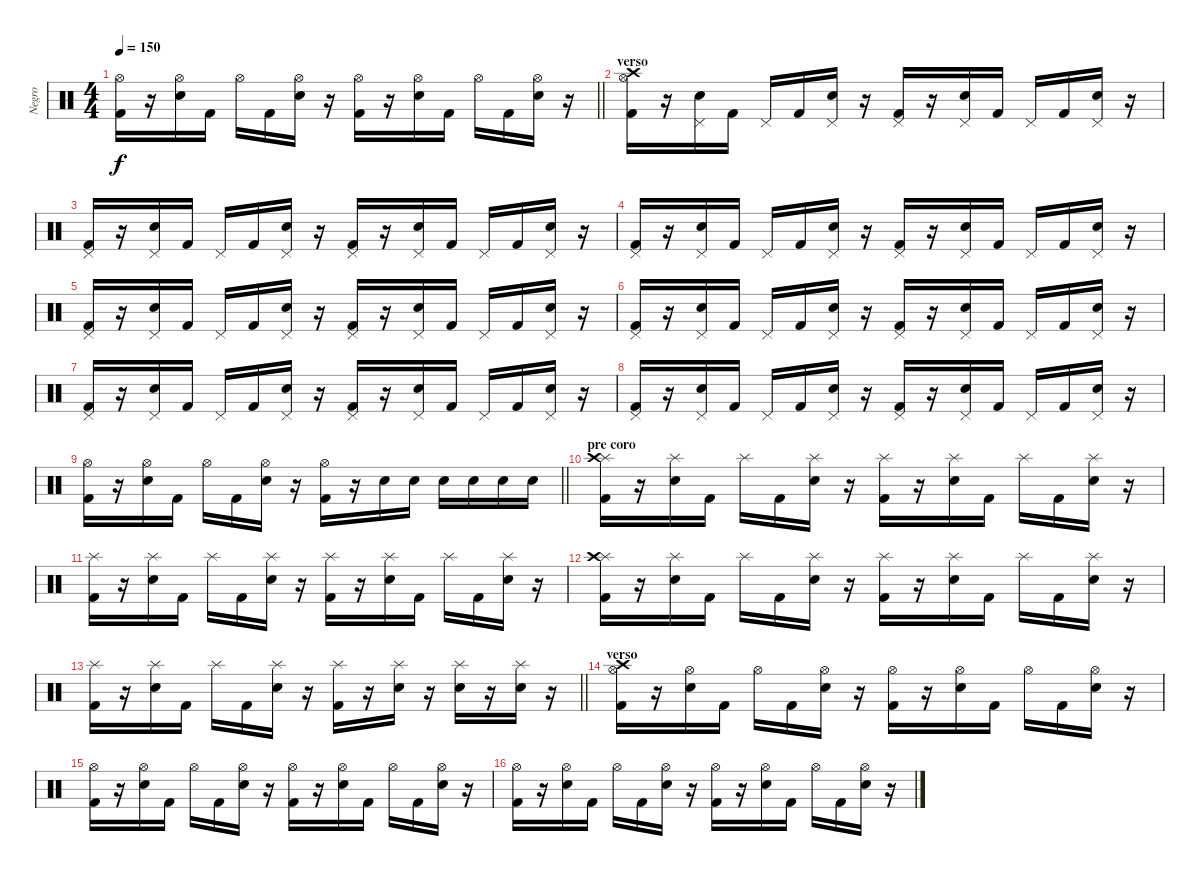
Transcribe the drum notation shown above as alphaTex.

\track ("Negro" "Negro") {instrument percussion}
\staff {score}
\articulation defaults
\ts (4 4)
\tempo 150
\clef neutral
\barLineRight lightlight
\ks c
("Kick (hit) 2" "Hi-Hat (open)").16{dy f} r.16 ("Electric Snare (hit)" "Hi-Hat (open)").16 "Kick (hit) 2".16 "Hi-Hat (open)".16 "Kick (hit) 2".16 ("Electric Snare (hit)" "Hi-Hat (open)").16 r.16 ("Kick (hit) 2" "Hi-Hat (open)").16 r.16 ("Electric Snare (hit)" "Hi-Hat (open)").16 "Kick (hit) 2".16 "Hi-Hat (open)".16 "Kick (hit) 2".16 ("Electric Snare (hit)" "Hi-Hat (open)").16 r.16 |
\section ("" "verso")
("Kick (hit) 2" "Hi-Hat (open)" "Crash high (hit)").16 r.16 ("Electric Snare (hit)" "Pedal Hi-Hat (hit)").16 "Kick (hit) 2".16 "Pedal Hi-Hat (hit)".16 "Kick (hit) 2".16 ("Electric Snare (hit)" "Pedal Hi-Hat (hit)").16 r.16 ("Kick (hit) 2" "Pedal Hi-Hat (hit)").16 r.16 ("Electric Snare (hit)" "Pedal Hi-Hat (hit)").16 "Kick (hit) 2".16 "Pedal Hi-Hat (hit)".16 "Kick (hit) 2".16 ("Electric Snare (hit)" "Pedal Hi-Hat (hit)").16 r.16 |
("Kick (hit) 2" "Pedal Hi-Hat (hit)").16 r.16 ("Electric Snare (hit)" "Pedal Hi-Hat (hit)").16 "Kick (hit) 2".16 "Pedal Hi-Hat (hit)".16 "Kick (hit) 2".16 ("Electric Snare (hit)" "Pedal Hi-Hat (hit)").16 r.16 ("Kick (hit) 2" "Pedal Hi-Hat (hit)").16 r.16 ("Electric Snare (hit)" "Pedal Hi-Hat (hit)").16 "Kick (hit) 2".16 "Pedal Hi-Hat (hit)".16 "Kick (hit) 2".16 ("Electric Snare (hit)" "Pedal Hi-Hat (hit)").16 r.16 |
("Kick (hit) 2" "Pedal Hi-Hat (hit)").16 r.16 ("Electric Snare (hit)" "Pedal Hi-Hat (hit)").16 "Kick (hit) 2".16 "Pedal Hi-Hat (hit)".16 "Kick (hit) 2".16 ("Electric Snare (hit)" "Pedal Hi-Hat (hit)").16 r.16 ("Kick (hit) 2" "Pedal Hi-Hat (hit)").16 r.16 ("Electric Snare (hit)" "Pedal Hi-Hat (hit)").16 "Kick (hit) 2".16 "Pedal Hi-Hat (hit)".16 "Kick (hit) 2".16 ("Electric Snare (hit)" "Pedal Hi-Hat (hit)").16 r.16 |
("Kick (hit) 2" "Pedal Hi-Hat (hit)").16 r.16 ("Electric Snare (hit)" "Pedal Hi-Hat (hit)").16 "Kick (hit) 2".16 "Pedal Hi-Hat (hit)".16 "Kick (hit) 2".16 ("Electric Snare (hit)" "Pedal Hi-Hat (hit)").16 r.16 ("Kick (hit) 2" "Pedal Hi-Hat (hit)").16 r.16 ("Electric Snare (hit)" "Pedal Hi-Hat (hit)").16 "Kick (hit) 2".16 "Pedal Hi-Hat (hit)".16 "Kick (hit) 2".16 ("Electric Snare (hit)" "Pedal Hi-Hat (hit)").16 r.16 |
("Kick (hit) 2" "Pedal Hi-Hat (hit)").16 r.16 ("Electric Snare (hit)" "Pedal Hi-Hat (hit)").16 "Kick (hit) 2".16 "Pedal Hi-Hat (hit)".16 "Kick (hit) 2".16 ("Electric Snare (hit)" "Pedal Hi-Hat (hit)").16 r.16 ("Kick (hit) 2" "Pedal Hi-Hat (hit)").16 r.16 ("Electric Snare (hit)" "Pedal Hi-Hat (hit)").16 "Kick (hit) 2".16 "Pedal Hi-Hat (hit)".16 "Kick (hit) 2".16 ("Electric Snare (hit)" "Pedal Hi-Hat (hit)").16 r.16 |
("Kick (hit) 2" "Pedal Hi-Hat (hit)").16 r.16 ("Electric Snare (hit)" "Pedal Hi-Hat (hit)").16 "Kick (hit) 2".16 "Pedal Hi-Hat (hit)".16 "Kick (hit) 2".16 ("Electric Snare (hit)" "Pedal Hi-Hat (hit)").16 r.16 ("Kick (hit) 2" "Pedal Hi-Hat (hit)").16 r.16 ("Electric Snare (hit)" "Pedal Hi-Hat (hit)").16 "Kick (hit) 2".16 "Pedal Hi-Hat (hit)".16 "Kick (hit) 2".16 ("Electric Snare (hit)" "Pedal Hi-Hat (hit)").16 r.16 |
("Kick (hit) 2" "Pedal Hi-Hat (hit)").16 r.16 ("Electric Snare (hit)" "Pedal Hi-Hat (hit)").16 "Kick (hit) 2".16 "Pedal Hi-Hat (hit)".16 "Kick (hit) 2".16 ("Electric Snare (hit)" "Pedal Hi-Hat (hit)").16 r.16 ("Kick (hit) 2" "Pedal Hi-Hat (hit)").16 r.16 ("Electric Snare (hit)" "Pedal Hi-Hat (hit)").16 "Kick (hit) 2".16 "Pedal Hi-Hat (hit)".16 "Kick (hit) 2".16 ("Electric Snare (hit)" "Pedal Hi-Hat (hit)").16 r.16 |
\barLineRight lightlight
("Kick (hit) 2" "Hi-Hat (open)").16 r.16 ("Electric Snare (hit)" "Hi-Hat (open)").16 "Kick (hit) 2".16 "Hi-Hat (open)".16 "Kick (hit) 2".16 ("Electric Snare (hit)" "Hi-Hat (open)").16 r.16 ("Kick (hit) 2" "Hi-Hat (open)").16 r.16 "Electric Snare (hit)".16 "Electric Snare (hit)".16 "Electric Snare (hit)".16 "Electric Snare (hit)".16 "Electric Snare (hit)".16 "Electric Snare (hit)".16 |
\section ("" "pre coro")
("Kick (hit) 2" "Splash (hit)" "Crash high (hit)").16 r.16 ("Electric Snare (hit)" "Splash (hit)").16 "Kick (hit) 2".16 "Splash (hit)".16 "Kick (hit) 2".16 ("Electric Snare (hit)" "Splash (hit)").16 r.16 ("Kick (hit) 2" "Splash (hit)").16 r.16 ("Electric Snare (hit)" "Splash (hit)").16 "Kick (hit) 2".16 "Splash (hit)".16 "Kick (hit) 2".16 ("Electric Snare (hit)" "Splash (hit)").16 r.16 |
("Kick (hit) 2" "Splash (hit)").16 r.16 ("Electric Snare (hit)" "Splash (hit)").16 "Kick (hit) 2".16 "Splash (hit)".16 "Kick (hit) 2".16 ("Electric Snare (hit)" "Splash (hit)").16 r.16 ("Kick (hit) 2" "Splash (hit)").16 r.16 ("Electric Snare (hit)" "Splash (hit)").16 "Kick (hit) 2".16 "Splash (hit)".16 "Kick (hit) 2".16 ("Electric Snare (hit)" "Splash (hit)").16 r.16 |
("Kick (hit) 2" "Splash (hit)" "Crash high (hit)").16 r.16 ("Electric Snare (hit)" "Splash (hit)").16 "Kick (hit) 2".16 "Splash (hit)".16 "Kick (hit) 2".16 ("Electric Snare (hit)" "Splash (hit)").16 r.16 ("Kick (hit) 2" "Splash (hit)").16 r.16 ("Electric Snare (hit)" "Splash (hit)").16 "Kick (hit) 2".16 "Splash (hit)".16 "Kick (hit) 2".16 ("Electric Snare (hit)" "Splash (hit)").16 r.16 |
\barLineRight lightlight
("Kick (hit) 2" "Splash (hit)").16 r.16 ("Electric Snare (hit)" "Splash (hit)").16 "Kick (hit) 2".16 "Splash (hit)".16 "Kick (hit) 2".16 ("Electric Snare (hit)" "Splash (hit)").16 r.16 ("Kick (hit) 2" "Splash (hit)").16 r.16 ("Electric Snare (hit)" "Splash (hit)").16 r.16 ("Electric Snare (hit)" "Splash (hit)").16 r.16 ("Electric Snare (hit)" "Splash (hit)").16 r.16 |
\section ("" "verso")
("Kick (hit) 2" "Hi-Hat (open)" "Crash high (hit)").16 r.16 ("Electric Snare (hit)" "Hi-Hat (open)").16 "Kick (hit) 2".16 "Hi-Hat (open)".16 "Kick (hit) 2".16 ("Electric Snare (hit)" "Hi-Hat (open)").16 r.16 ("Kick (hit) 2" "Hi-Hat (open)").16 r.16 ("Electric Snare (hit)" "Hi-Hat (open)").16 "Kick (hit) 2".16 "Hi-Hat (open)".16 "Kick (hit) 2".16 ("Electric Snare (hit)" "Hi-Hat (open)").16 r.16 |
("Kick (hit) 2" "Hi-Hat (open)").16 r.16 ("Electric Snare (hit)" "Hi-Hat (open)").16 "Kick (hit) 2".16 "Hi-Hat (open)".16 "Kick (hit) 2".16 ("Electric Snare (hit)" "Hi-Hat (open)").16 r.16 ("Kick (hit) 2" "Hi-Hat (open)").16 r.16 ("Electric Snare (hit)" "Hi-Hat (open)").16 "Kick (hit) 2".16 "Hi-Hat (open)".16 "Kick (hit) 2".16 ("Electric Snare (hit)" "Hi-Hat (open)").16 r.16 |
("Kick (hit) 2" "Hi-Hat (open)").16 r.16 ("Electric Snare (hit)" "Hi-Hat (open)").16 "Kick (hit) 2".16 "Hi-Hat (open)".16 "Kick (hit) 2".16 ("Electric Snare (hit)" "Hi-Hat (open)").16 r.16 ("Kick (hit) 2" "Hi-Hat (open)").16 r.16 ("Electric Snare (hit)" "Hi-Hat (open)").16 "Kick (hit) 2".16 "Hi-Hat (open)".16 "Kick (hit) 2".16 ("Electric Snare (hit)" "Hi-Hat (open)").16 r.16
